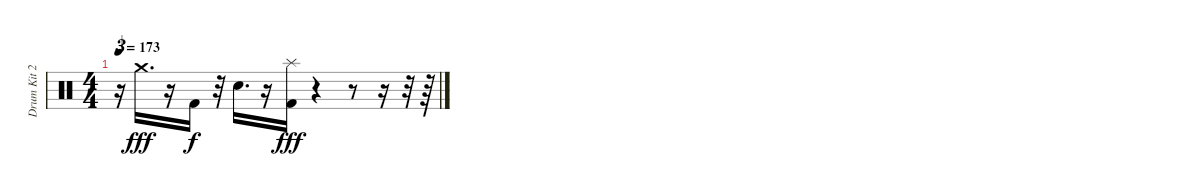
\track ("Drum Kit 2" "Drum Kit 2") {instrument percussion}
\staff {score}
\articulation defaults
\ts (4 4)
\tempo 173
\clef neutral
\ks c
r.16{tu (3 2) dy f} "Crash medium (hit)".16{d dy fff} r.16 "Kick (hit) 2".16{dy f} r.32 "Electric Snare (hit)".16{d} r.16 ("Kick (hit) 2" "Splash (hit)").16{dy fff} r.4 r.8 r.16 r.32 r.64
